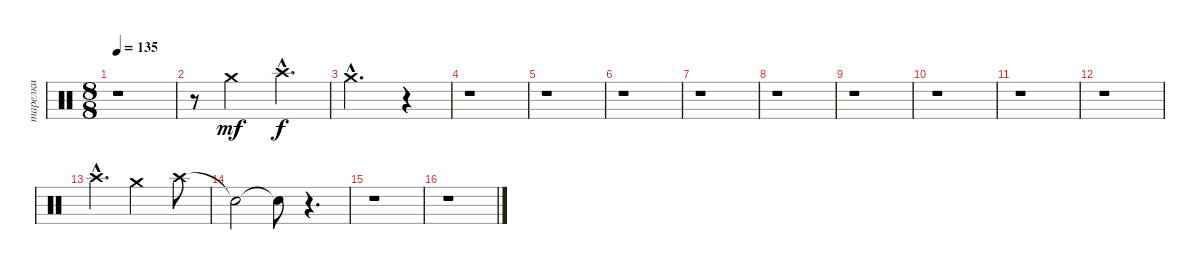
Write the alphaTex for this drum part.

\track ("тарелки" "тарелки") {instrument percussion}
\staff {score}
\articulation defaults
\ts (8 8)
\tempo 135
\clef neutral
\ks c
r.1{dy f} |
r.8 "Crash medium (hit)".2{dy mf} "Crash high (hit)"{hac}.4{d dy f} |
"Crash medium (hit)"{hac}.2{d} r.4 |
r.1 |
r.1 |
r.1 |
r.1 |
r.1 |
r.1 |
r.1 |
r.1 |
r.1 |
"Crash high (hit)"{hac}.4{d} "Crash medium (hit)".2 "Crash high (hit)".8 |
"Snare (hit)"{t}.2 "Snare (hit)"{t}.8 r.4{d} |
r.1 |
r.1
